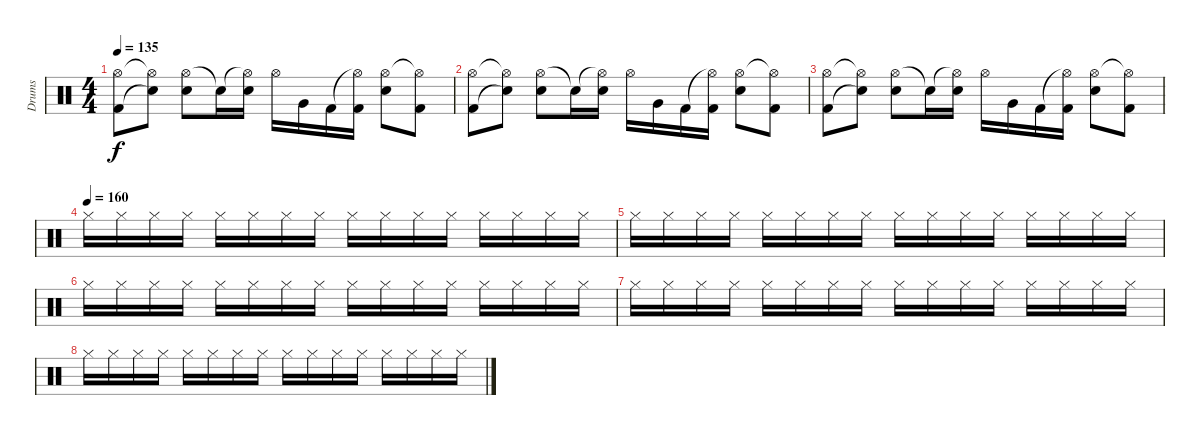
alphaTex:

\track ("Drums" "Drums") {instrument percussion}
\staff {score}
\articulation defaults
\ts (4 4)
\tempo 135
\clef neutral
\ks c
("Hi-Hat (open)" "Kick (hit) 2").8{dy f} ("Hi-Hat (open)"{t} "Snare (hit)"{t}).8 ("Hi-Hat (open)" "Electric Snare (hit)").8 "Snare (hit)"{t}.16 ("Hi-Hat (open)"{t} "Electric Snare (hit)").16 "Hi-Hat (open)".16 "Very Low Tom (hit)".16 "Kick (hit) 2".16 ("Hi-Hat (open)"{t} "Kick (hit) 2").16 ("Hi-Hat (open)" "Electric Snare (hit)").8 ("Hi-Hat (open)"{t} "Kick (hit) 2").8 |
("Hi-Hat (open)" "Kick (hit) 2").8 ("Hi-Hat (open)"{t} "Snare (hit)"{t}).8 ("Hi-Hat (open)" "Electric Snare (hit)").8 "Snare (hit)"{t}.16 ("Hi-Hat (open)"{t} "Electric Snare (hit)").16 "Hi-Hat (open)".16 "Very Low Tom (hit)".16 "Kick (hit) 2".16 ("Hi-Hat (open)"{t} "Kick (hit) 2").16 ("Hi-Hat (open)" "Electric Snare (hit)").8 ("Hi-Hat (open)"{t} "Kick (hit) 2").8 |
("Hi-Hat (open)" "Kick (hit) 2").8 ("Hi-Hat (open)"{t} "Snare (hit)"{t}).8 ("Hi-Hat (open)" "Electric Snare (hit)").8 "Snare (hit)"{t}.16 ("Hi-Hat (open)"{t} "Electric Snare (hit)").16 "Hi-Hat (open)".16 "Very Low Tom (hit)".16 "Kick (hit) 2".16 ("Hi-Hat (open)"{t} "Kick (hit) 2").16 ("Hi-Hat (open)" "Electric Snare (hit)").8 ("Hi-Hat (open)"{t} "Kick (hit) 2").8 |
\tempo (160)
"Hi-Hat (closed)".16 "Hi-Hat (closed)".16 "Hi-Hat (closed)".16 "Hi-Hat (closed)".16 "Hi-Hat (closed)".16 "Hi-Hat (closed)".16 "Hi-Hat (closed)".16 "Hi-Hat (closed)".16 "Hi-Hat (closed)".16 "Hi-Hat (closed)".16 "Hi-Hat (closed)".16 "Hi-Hat (closed)".16 "Hi-Hat (closed)".16 "Hi-Hat (closed)".16 "Hi-Hat (closed)".16 "Hi-Hat (closed)".16 |
"Hi-Hat (closed)".16 "Hi-Hat (closed)".16 "Hi-Hat (closed)".16 "Hi-Hat (closed)".16 "Hi-Hat (closed)".16 "Hi-Hat (closed)".16 "Hi-Hat (closed)".16 "Hi-Hat (closed)".16 "Hi-Hat (closed)".16 "Hi-Hat (closed)".16 "Hi-Hat (closed)".16 "Hi-Hat (closed)".16 "Hi-Hat (closed)".16 "Hi-Hat (closed)".16 "Hi-Hat (closed)".16 "Hi-Hat (closed)".16 |
"Hi-Hat (closed)".16 "Hi-Hat (closed)".16 "Hi-Hat (closed)".16 "Hi-Hat (closed)".16 "Hi-Hat (closed)".16 "Hi-Hat (closed)".16 "Hi-Hat (closed)".16 "Hi-Hat (closed)".16 "Hi-Hat (closed)".16 "Hi-Hat (closed)".16 "Hi-Hat (closed)".16 "Hi-Hat (closed)".16 "Hi-Hat (closed)".16 "Hi-Hat (closed)".16 "Hi-Hat (closed)".16 "Hi-Hat (closed)".16 |
"Hi-Hat (closed)".16 "Hi-Hat (closed)".16 "Hi-Hat (closed)".16 "Hi-Hat (closed)".16 "Hi-Hat (closed)".16 "Hi-Hat (closed)".16 "Hi-Hat (closed)".16 "Hi-Hat (closed)".16 "Hi-Hat (closed)".16 "Hi-Hat (closed)".16 "Hi-Hat (closed)".16 "Hi-Hat (closed)".16 "Hi-Hat (closed)".16 "Hi-Hat (closed)".16 "Hi-Hat (closed)".16 "Hi-Hat (closed)".16 |
"Hi-Hat (closed)".16 "Hi-Hat (closed)".16 "Hi-Hat (closed)".16 "Hi-Hat (closed)".16 "Hi-Hat (closed)".16 "Hi-Hat (closed)".16 "Hi-Hat (closed)".16 "Hi-Hat (closed)".16 "Hi-Hat (closed)".16 "Hi-Hat (closed)".16 "Hi-Hat (closed)".16 "Hi-Hat (closed)".16 "Hi-Hat (closed)".16 "Hi-Hat (closed)".16 "Hi-Hat (closed)".16 "Hi-Hat (closed)".16
